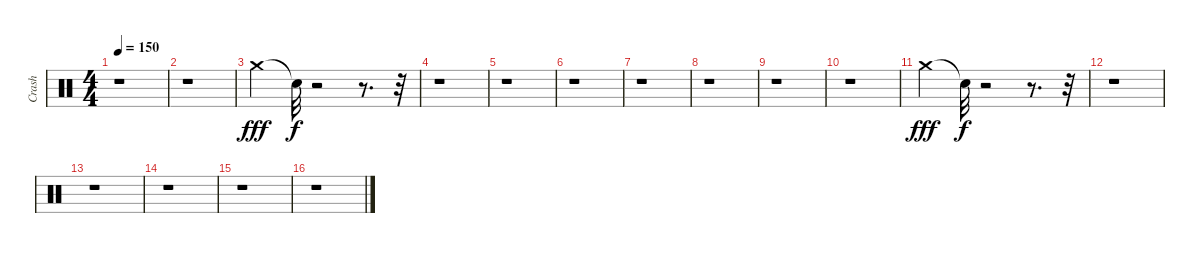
\track ("Crash" "Crash") {instrument percussion}
\staff {score}
\articulation defaults
\ts (4 4)
\tempo 150
\clef neutral
\ks c
r.1{dy fff} |
r.1 |
"Crash medium (hit)".4 "Snare (hit)"{t}.32{dy f} r.2 r.8{d} r.32 |
r.1 |
r.1 |
r.1 |
r.1 |
r.1 |
r.1 |
r.1 |
"Crash medium (hit)".4{dy fff} "Snare (hit)"{t}.32{dy f} r.2 r.8{d} r.32 |
r.1 |
r.1 |
r.1 |
r.1 |
r.1
